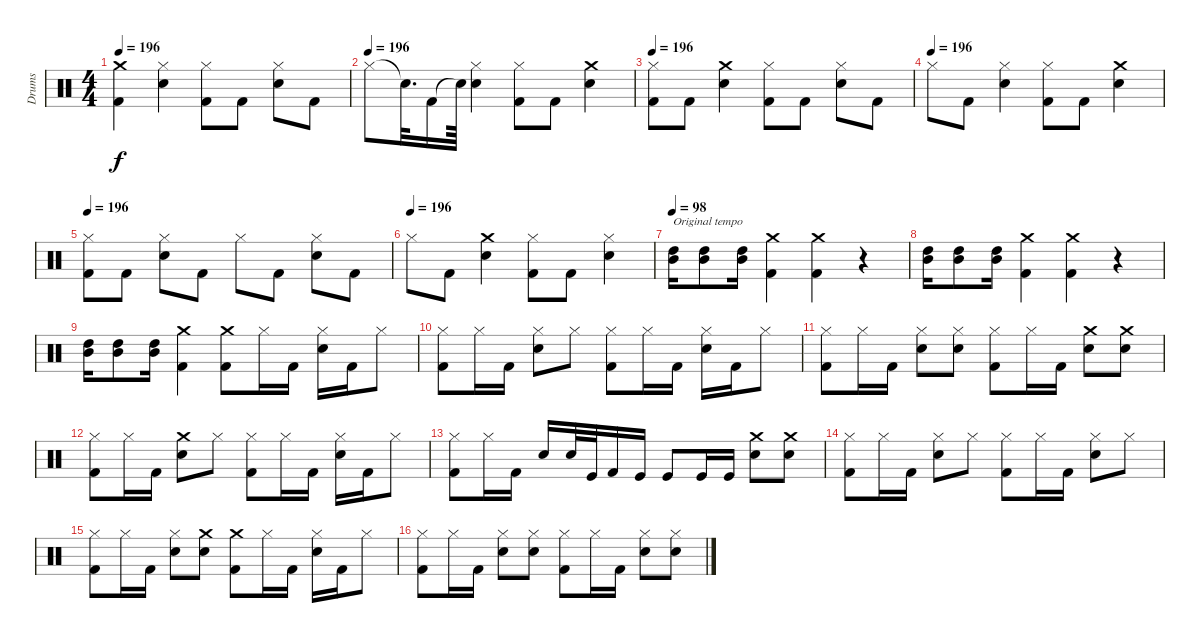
\track ("Drums" "Drums") {instrument percussion}
\staff {score}
\articulation defaults
\ts (4 4)
\tempo 196
\clef neutral
\ks c
("Kick (hit) 2" "Crash medium (hit)").4{dy f} ("Snare (hit) 2" "Hi-Hat (closed)").4 ("Kick (hit) 2" "Hi-Hat (closed)").8 "Kick (hit) 2".8 ("Snare (hit) 2" "Hi-Hat (closed)").8 "Kick (hit) 2".8 |
\tempo (196)
"Hi-Hat (closed)".8 "Snare (hit)"{t}.32{d} "Kick (hit) 2".16 "Snare (hit)"{t}.64 ("Snare (hit) 2" "Hi-Hat (closed)").4 ("Kick (hit) 2" "Hi-Hat (closed)").8 "Kick (hit) 2".8 ("Crash medium (hit)" "Snare (hit) 2").4 |
\tempo 196
("Hi-Hat (closed)" "Kick (hit) 2").8 "Kick (hit) 2".8 ("Snare (hit) 2" "Crash medium (hit)").4 ("Hi-Hat (closed)" "Kick (hit) 2").8 "Kick (hit) 2".8 ("Snare (hit) 2" "Hi-Hat (closed)").8 "Kick (hit) 2".8 |
\tempo (196)
"Hi-Hat (closed)".8 "Kick (hit) 2".8 ("Snare (hit) 2" "Hi-Hat (closed)").4 ("Hi-Hat (closed)" "Kick (hit) 2").8 "Kick (hit) 2".8 ("Crash medium (hit)" "Snare (hit) 2").4 |
\tempo 196
("Hi-Hat (closed)" "Kick (hit) 2").8 "Kick (hit) 2".8 ("Snare (hit) 2" "Hi-Hat (closed)").8 "Kick (hit) 2".8 "Hi-Hat (closed)".8 "Kick (hit) 2".8 ("Snare (hit) 2" "Hi-Hat (closed)").8 "Kick (hit) 2".8 |
\tempo (196)
"Hi-Hat (closed)".8 "Kick (hit) 2".8 ("Crash medium (hit)" "Snare (hit) 2").4 ("Hi-Hat (closed)" "Kick (hit) 2").8 "Kick (hit) 2".8 ("Snare (hit) 2" "Hi-Hat (closed)").4 |
\tempo 98
("High Tom (hit)" "Mid Tom (hit)").16{txt "Original tempo"} ("Mid Tom (hit)" "High Tom (hit)").8 ("High Tom (hit)" "Mid Tom (hit)").16 ("Crash medium (hit)" "Kick (hit) 2").4 ("Crash medium (hit)" "Kick (hit) 2").4 r.4 |
("High Tom (hit)" "Mid Tom (hit)").16 ("Mid Tom (hit)" "High Tom (hit)").8 ("High Tom (hit)" "Mid Tom (hit)").16 ("Crash medium (hit)" "Kick (hit) 2").4 ("Crash medium (hit)" "Kick (hit) 2").4 r.4 |
("Mid Tom (hit)" "High Tom (hit)").16 ("Mid Tom (hit)" "High Tom (hit)").8 ("Mid Tom (hit)" "High Tom (hit)").16 ("Kick (hit) 2" "Crash medium (hit)").4 ("Crash medium (hit)" "Kick (hit) 2").8 "Hi-Hat (closed)".16 "Kick (hit) 2".16 ("Snare (hit) 2" "Hi-Hat (closed)").16 "Kick (hit) 2".16 "Hi-Hat (closed)".8 |
("Kick (hit) 2" "Hi-Hat (closed)").8 "Hi-Hat (closed)".16 "Kick (hit) 2".16 ("Snare (hit) 2" "Hi-Hat (closed)").8 "Hi-Hat (closed)".8 ("Kick (hit) 2" "Hi-Hat (closed)").8 "Hi-Hat (closed)".16 "Kick (hit) 2".16 ("Snare (hit) 2" "Hi-Hat (closed)").16 "Kick (hit) 2".16 "Hi-Hat (closed)".8 |
("Hi-Hat (closed)" "Kick (hit) 2").8 "Hi-Hat (closed)".16 "Kick (hit) 2".16 ("Snare (hit) 2" "Hi-Hat (closed)").8 ("Snare (hit) 2" "Hi-Hat (closed)").8 ("Hi-Hat (closed)" "Kick (hit) 2").8 "Hi-Hat (closed)".16 "Kick (hit) 2".16 ("Snare (hit) 2" "Crash medium (hit)").8 ("Snare (hit) 2" "Crash medium (hit)").8 |
("Kick (hit) 2" "Hi-Hat (closed)").8 "Hi-Hat (closed)".16 "Kick (hit) 2".16 ("Crash medium (hit)" "Snare (hit) 2").8 "Hi-Hat (closed)".8 ("Kick (hit) 2" "Hi-Hat (closed)").8 "Hi-Hat (closed)".16 "Kick (hit) 2".16 ("Snare (hit) 2" "Hi-Hat (closed)").16 "Kick (hit) 2".16 "Hi-Hat (closed)".8 |
("Kick (hit) 2" "Hi-Hat (closed)").8 "Hi-Hat (closed)".16 "Kick (hit) 2".16 "Snare (hit) 2".16 "Snare (hit) 2".32 "Kick (hit)".32 "Kick (hit) 2".16 "Kick (hit)".16 "Kick (hit)".8 "Kick (hit)".16 "Kick (hit)".16 ("Crash medium (hit)" "Snare (hit) 2").8 ("Crash medium (hit)" "Snare (hit) 2").8 |
("Kick (hit) 2" "Hi-Hat (closed)").8 "Hi-Hat (closed)".16 "Kick (hit) 2".16 ("Snare (hit) 2" "Hi-Hat (closed)").8 "Hi-Hat (closed)".8 ("Kick (hit) 2" "Hi-Hat (closed)").8 "Hi-Hat (closed)".16 "Kick (hit) 2".16 ("Snare (hit) 2" "Hi-Hat (closed)").8 "Hi-Hat (closed)".8 |
("Hi-Hat (closed)" "Kick (hit) 2").8 "Hi-Hat (closed)".16 "Kick (hit) 2".16 ("Snare (hit) 2" "Hi-Hat (closed)").8 ("Crash medium (hit)" "Snare (hit) 2").8 ("Crash medium (hit)" "Kick (hit) 2").8 "Hi-Hat (closed)".16 "Kick (hit) 2".16 ("Hi-Hat (closed)" "Snare (hit) 2").16 "Kick (hit) 2".16 "Hi-Hat (closed)".8 |
("Hi-Hat (closed)" "Kick (hit) 2").8 "Hi-Hat (closed)".16 "Kick (hit) 2".16 ("Snare (hit) 2" "Hi-Hat (closed)").8 ("Snare (hit) 2" "Hi-Hat (closed)").8 ("Hi-Hat (closed)" "Kick (hit) 2").8 "Hi-Hat (closed)".16 "Kick (hit) 2".16 ("Snare (hit) 2" "Hi-Hat (closed)").8 ("Snare (hit) 2" "Hi-Hat (closed)").8
